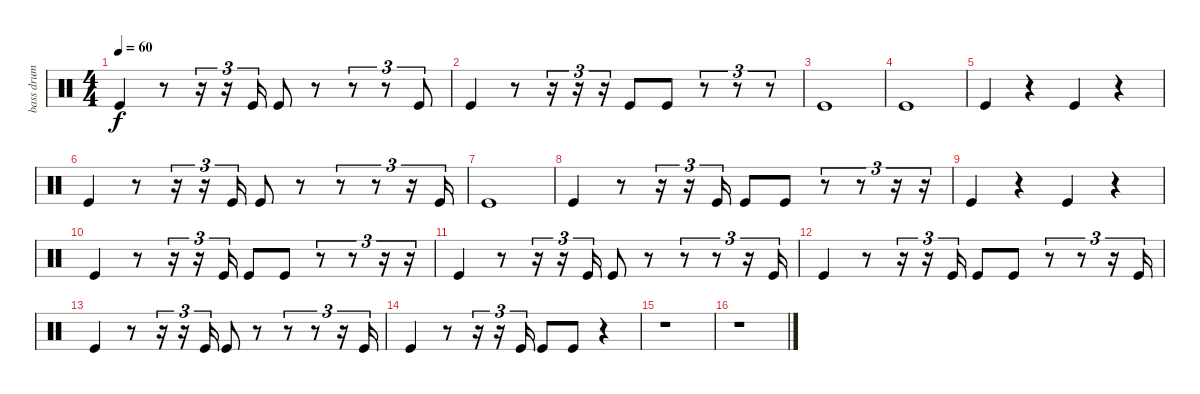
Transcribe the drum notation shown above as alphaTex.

\track ("bass drum" "bass drum") {instrument percussion}
\staff {score}
\articulation defaults
\ts (4 4)
\tempo 60
\clef neutral
\ks c "Kick (hit)".4{dy f}
r.8 r.16{tu (3 2)} r.16{tu (3 2)} "Kick (hit)".16{tu (3 2)} "Kick (hit)".8 r.8 r.8{tu (3 2)} r.8{tu (3 2)} "Kick (hit)".8{tu (3 2)} |
"Kick (hit)".4 r.8 r.16{tu (3 2)} r.16{tu (3 2)} r.16{tu (3 2)} "Kick (hit)".8 "Kick (hit)".8 r.8{tu (3 2)} r.8{tu (3 2)} r.8{tu (3 2)} |
"Kick (hit)".1 |
"Kick (hit)".1 |
"Kick (hit)".4 r.4 "Kick (hit)".4 r.4 |
"Kick (hit)".4 r.8 r.16{tu (3 2)} r.16{tu (3 2)} "Kick (hit)".16{tu (3 2)} "Kick (hit)".8 r.8 r.8{tu (3 2)} r.8{tu (3 2)} r.16{tu (3 2)} "Kick (hit)".16{tu (3 2)} |
"Kick (hit)".1 |
"Kick (hit)".4 r.8 r.16{tu (3 2)} r.16{tu (3 2)} "Kick (hit)".16{tu (3 2)} "Kick (hit)".8 "Kick (hit)".8 r.8{tu (3 2)} r.8{tu (3 2)} r.16{tu (3 2)} r.16{tu (3 2)} |
"Kick (hit)".4 r.4 "Kick (hit)".4 r.4 |
"Kick (hit)".4 r.8 r.16{tu (3 2)} r.16{tu (3 2)} "Kick (hit)".16{tu (3 2)} "Kick (hit)".8 "Kick (hit)".8 r.8{tu (3 2)} r.8{tu (3 2)} r.16{tu (3 2)} r.16{tu (3 2)} |
"Kick (hit)".4 r.8 r.16{tu (3 2)} r.16{tu (3 2)} "Kick (hit)".16{tu (3 2)} "Kick (hit)".8 r.8 r.8{tu (3 2)} r.8{tu (3 2)} r.16{tu (3 2)} "Kick (hit)".16{tu (3 2)} |
"Kick (hit)".4 r.8 r.16{tu (3 2)} r.16{tu (3 2)} "Kick (hit)".16{tu (3 2)} "Kick (hit)".8 "Kick (hit)".8 r.8{tu (3 2)} r.8{tu (3 2)} r.16{tu (3 2)} "Kick (hit)".16{tu (3 2)} |
"Kick (hit)".4 r.8 r.16{tu (3 2)} r.16{tu (3 2)} "Kick (hit)".16{tu (3 2)} "Kick (hit)".8 r.8 r.8{tu (3 2)} r.8{tu (3 2)} r.16{tu (3 2)} "Kick (hit)".16{tu (3 2)} |
"Kick (hit)".4 r.8 r.16{tu (3 2)} r.16{tu (3 2)} "Kick (hit)".16{tu (3 2)} "Kick (hit)".8 "Kick (hit)".8 r.4 |
r.1 |
r.1
